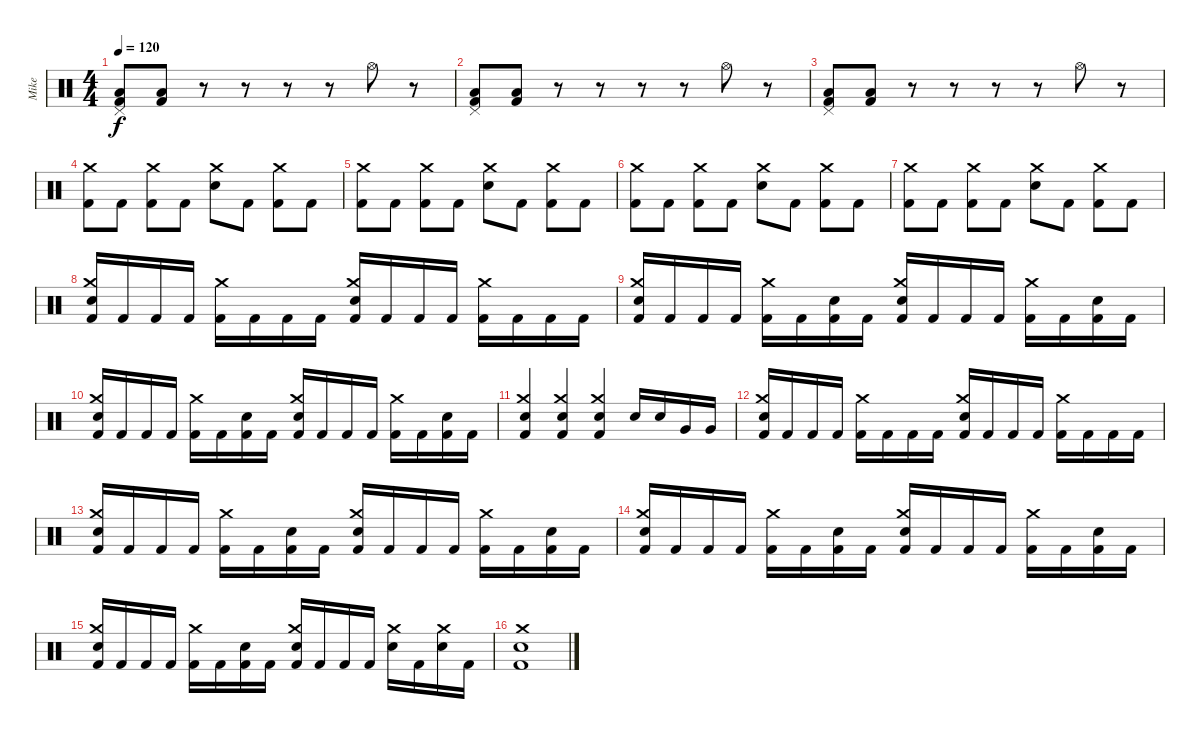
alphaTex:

\track ("Mike" "Mike") {instrument percussion}
\staff {score}
\articulation defaults
\ts (4 4)
\tempo 120
\clef neutral
\ks c
("Pedal Hi-Hat (hit)" "Low Floor Tom (hit)" "Kick (hit) 2").8{dy f} ("Low Floor Tom (hit)" "Kick (hit) 2").8 r.8 r.8 r.8 r.8 "Hi-Hat (open)".8 r.8 |
("Pedal Hi-Hat (hit)" "Low Floor Tom (hit)" "Kick (hit) 2").8 ("Low Floor Tom (hit)" "Kick (hit) 2").8 r.8 r.8 r.8 r.8 "Hi-Hat (open)".8 r.8 |
("Pedal Hi-Hat (hit)" "Low Floor Tom (hit)" "Kick (hit) 2").8 ("Low Floor Tom (hit)" "Kick (hit) 2").8 r.8 r.8 r.8 r.8 "Hi-Hat (open)".8 r.8 |
("Crash medium (hit)" "Kick (hit) 2").8 "Kick (hit) 2".8 ("Crash medium (hit)" "Kick (hit) 2").8 "Kick (hit) 2".8 ("Crash medium (hit)" "Electric Snare (hit)").8 "Kick (hit) 2".8 ("Crash medium (hit)" "Kick (hit) 2").8 "Kick (hit) 2".8 |
("Crash medium (hit)" "Kick (hit) 2").8 "Kick (hit) 2".8 ("Crash medium (hit)" "Kick (hit) 2").8 "Kick (hit) 2".8 ("Crash medium (hit)" "Electric Snare (hit)").8 "Kick (hit) 2".8 ("Crash medium (hit)" "Kick (hit) 2").8 "Kick (hit) 2".8 |
("Crash medium (hit)" "Kick (hit) 2").8 "Kick (hit) 2".8 ("Crash medium (hit)" "Kick (hit) 2").8 "Kick (hit) 2".8 ("Crash medium (hit)" "Electric Snare (hit)").8 "Kick (hit) 2".8 ("Crash medium (hit)" "Kick (hit) 2").8 "Kick (hit) 2".8 |
("Crash medium (hit)" "Kick (hit) 2").8 "Kick (hit) 2".8 ("Crash medium (hit)" "Kick (hit) 2").8 "Kick (hit) 2".8 ("Crash medium (hit)" "Electric Snare (hit)").8 "Kick (hit) 2".8 ("Crash medium (hit)" "Kick (hit) 2").8 "Kick (hit) 2".8 |
("Crash medium (hit)" "Electric Snare (hit)" "Kick (hit) 2").16 "Kick (hit) 2".16 "Kick (hit) 2".16 "Kick (hit) 2".16 ("Crash medium (hit)" "Kick (hit) 2").16 "Kick (hit) 2".16 "Kick (hit) 2".16 "Kick (hit) 2".16 ("Crash medium (hit)" "Electric Snare (hit)" "Kick (hit) 2").16 "Kick (hit) 2".16 "Kick (hit) 2".16 "Kick (hit) 2".16 ("Crash medium (hit)" "Kick (hit) 2").16 "Kick (hit) 2".16 "Kick (hit) 2".16 "Kick (hit) 2".16 |
("Crash medium (hit)" "Electric Snare (hit)" "Kick (hit) 2").16 "Kick (hit) 2".16 "Kick (hit) 2".16 "Kick (hit) 2".16 ("Crash medium (hit)" "Kick (hit) 2").16 "Kick (hit) 2".16 ("Electric Snare (hit)" "Kick (hit) 2").16 "Kick (hit) 2".16 ("Crash medium (hit)" "Electric Snare (hit)" "Kick (hit) 2").16 "Kick (hit) 2".16 "Kick (hit) 2".16 "Kick (hit) 2".16 ("Crash medium (hit)" "Kick (hit) 2").16 "Kick (hit) 2".16 ("Electric Snare (hit)" "Kick (hit) 2").16 "Kick (hit) 2".16 |
("Crash medium (hit)" "Electric Snare (hit)" "Kick (hit) 2").16 "Kick (hit) 2".16 "Kick (hit) 2".16 "Kick (hit) 2".16 ("Crash medium (hit)" "Kick (hit) 2").16 "Kick (hit) 2".16 ("Electric Snare (hit)" "Kick (hit) 2").16 "Kick (hit) 2".16 ("Crash medium (hit)" "Electric Snare (hit)" "Kick (hit) 2").16 "Kick (hit) 2".16 "Kick (hit) 2".16 "Kick (hit) 2".16 ("Crash medium (hit)" "Kick (hit) 2").16 "Kick (hit) 2".16 ("Electric Snare (hit)" "Kick (hit) 2").16 "Kick (hit) 2".16 |
("Crash medium (hit)" "Electric Snare (hit)" "Kick (hit) 2").4 ("Crash medium (hit)" "Electric Snare (hit)" "Kick (hit) 2").4 ("Crash medium (hit)" "Electric Snare (hit)" "Kick (hit) 2").4 "Electric Snare (hit)".16 "Electric Snare (hit)".16 "Very Low Tom (hit)".16 "Very Low Tom (hit)".16 |
("Crash medium (hit)" "Electric Snare (hit)" "Kick (hit) 2").16 "Kick (hit) 2".16 "Kick (hit) 2".16 "Kick (hit) 2".16 ("Crash medium (hit)" "Kick (hit) 2").16 "Kick (hit) 2".16 "Kick (hit) 2".16 "Kick (hit) 2".16 ("Crash medium (hit)" "Electric Snare (hit)" "Kick (hit) 2").16 "Kick (hit) 2".16 "Kick (hit) 2".16 "Kick (hit) 2".16 ("Crash medium (hit)" "Kick (hit) 2").16 "Kick (hit) 2".16 "Kick (hit) 2".16 "Kick (hit) 2".16 |
("Crash medium (hit)" "Electric Snare (hit)" "Kick (hit) 2").16 "Kick (hit) 2".16 "Kick (hit) 2".16 "Kick (hit) 2".16 ("Crash medium (hit)" "Kick (hit) 2").16 "Kick (hit) 2".16 ("Electric Snare (hit)" "Kick (hit) 2").16 "Kick (hit) 2".16 ("Crash medium (hit)" "Electric Snare (hit)" "Kick (hit) 2").16 "Kick (hit) 2".16 "Kick (hit) 2".16 "Kick (hit) 2".16 ("Crash medium (hit)" "Kick (hit) 2").16 "Kick (hit) 2".16 ("Electric Snare (hit)" "Kick (hit) 2").16 "Kick (hit) 2".16 |
("Crash medium (hit)" "Electric Snare (hit)" "Kick (hit) 2").16 "Kick (hit) 2".16 "Kick (hit) 2".16 "Kick (hit) 2".16 ("Crash medium (hit)" "Kick (hit) 2").16 "Kick (hit) 2".16 ("Electric Snare (hit)" "Kick (hit) 2").16 "Kick (hit) 2".16 ("Crash medium (hit)" "Electric Snare (hit)" "Kick (hit) 2").16 "Kick (hit) 2".16 "Kick (hit) 2".16 "Kick (hit) 2".16 ("Crash medium (hit)" "Kick (hit) 2").16 "Kick (hit) 2".16 ("Electric Snare (hit)" "Kick (hit) 2").16 "Kick (hit) 2".16 |
("Crash medium (hit)" "Electric Snare (hit)" "Kick (hit) 2").16 "Kick (hit) 2".16 "Kick (hit) 2".16 "Kick (hit) 2".16 ("Crash medium (hit)" "Kick (hit) 2").16 "Kick (hit) 2".16 ("Electric Snare (hit)" "Kick (hit) 2").16 "Kick (hit) 2".16 ("Crash medium (hit)" "Electric Snare (hit)" "Kick (hit) 2").16 "Kick (hit) 2".16 "Kick (hit) 2".16 "Kick (hit) 2".16 ("Crash medium (hit)" "Electric Snare (hit)").16 "Kick (hit) 2".16 ("Crash medium (hit)" "Electric Snare (hit)").16 "Kick (hit) 2".16 |
("Crash medium (hit)" "Electric Snare (hit)" "Kick (hit) 2").1
